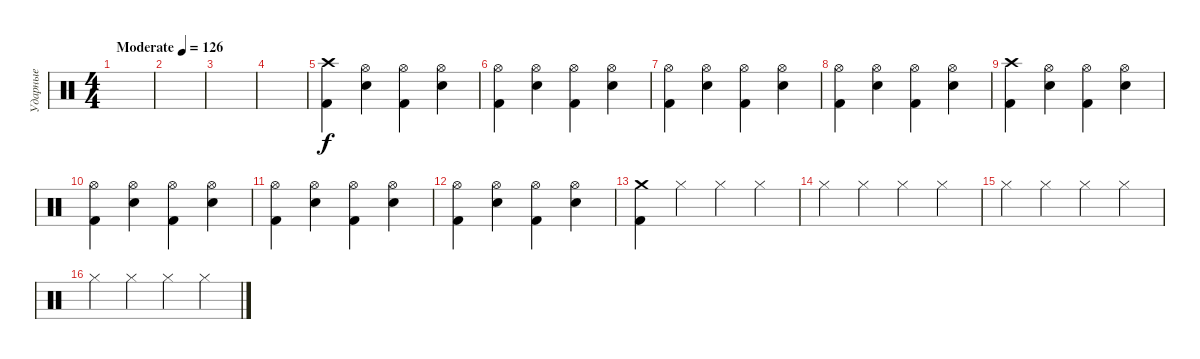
\track ("Ударные" "Ударные") {instrument percussion}
\staff {score}
\articulation defaults
\ts (4 4)
\tempo (126 "Moderate")
\clef neutral
\ks c
|
|
|
|
("Crash high (hit)" "Kick (hit) 2").4 ("Hi-Hat (open)" "Electric Snare (hit)").4 ("Hi-Hat (open)" "Kick (hit) 2").4 ("Hi-Hat (open)" "Electric Snare (hit)").4 |
("Hi-Hat (open)" "Kick (hit) 2").4 ("Hi-Hat (open)" "Electric Snare (hit)").4 ("Hi-Hat (open)" "Kick (hit) 2").4 ("Hi-Hat (open)" "Electric Snare (hit)").4 |
("Hi-Hat (open)" "Kick (hit) 2").4 ("Hi-Hat (open)" "Electric Snare (hit)").4 ("Hi-Hat (open)" "Kick (hit) 2").4 ("Hi-Hat (open)" "Electric Snare (hit)").4 |
("Hi-Hat (open)" "Kick (hit) 2").4 ("Hi-Hat (open)" "Electric Snare (hit)").4 ("Hi-Hat (open)" "Kick (hit) 2").4 ("Hi-Hat (open)" "Electric Snare (hit)").4 |
("Crash high (hit)" "Kick (hit) 2").4 ("Hi-Hat (open)" "Electric Snare (hit)").4 ("Hi-Hat (open)" "Kick (hit) 2").4 ("Hi-Hat (open)" "Electric Snare (hit)").4 |
("Hi-Hat (open)" "Kick (hit) 2").4 ("Hi-Hat (open)" "Electric Snare (hit)").4 ("Hi-Hat (open)" "Kick (hit) 2").4 ("Hi-Hat (open)" "Electric Snare (hit)").4 |
("Hi-Hat (open)" "Kick (hit) 2").4 ("Hi-Hat (open)" "Electric Snare (hit)").4 ("Hi-Hat (open)" "Kick (hit) 2").4 ("Hi-Hat (open)" "Electric Snare (hit)").4 |
("Hi-Hat (open)" "Kick (hit) 2").4 ("Hi-Hat (open)" "Electric Snare (hit)").4 ("Hi-Hat (open)" "Kick (hit) 2").4 ("Hi-Hat (open)" "Electric Snare (hit)").4 |
("Kick (hit) 2" "Crash medium (hit)").4 "Hi-Hat (closed)".4 "Hi-Hat (closed)".4 "Hi-Hat (closed)".4 |
"Hi-Hat (closed)".4 "Hi-Hat (closed)".4 "Hi-Hat (closed)".4 "Hi-Hat (closed)".4 |
"Hi-Hat (closed)".4 "Hi-Hat (closed)".4 "Hi-Hat (closed)".4 "Hi-Hat (closed)".4 |
"Hi-Hat (closed)".4 "Hi-Hat (closed)".4 "Hi-Hat (closed)".4 "Hi-Hat (closed)".4
